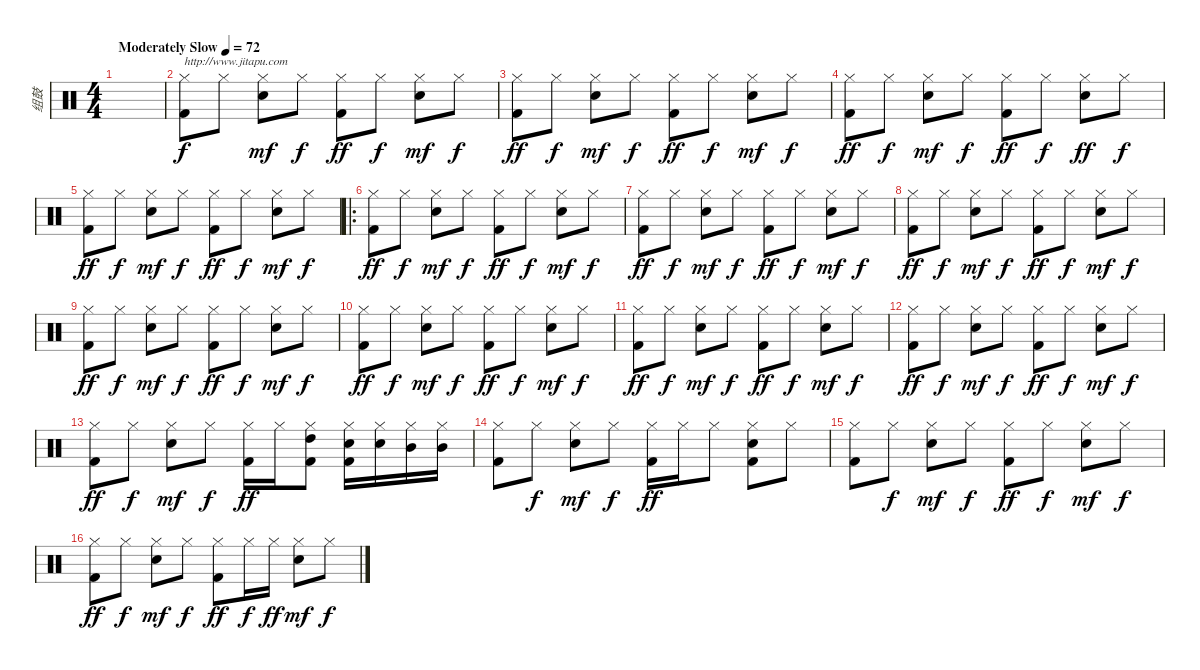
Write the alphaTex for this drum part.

\track ("组鼓" "组鼓") {instrument percussion}
\staff {score}
\articulation defaults
\ts (4 4)
\tempo (72 "Moderately Slow")
\clef neutral
\ks c
|
("Hi-Hat (closed)" "Kick (hit) 2").8{txt "http://www.jitapu.com"} "Hi-Hat (closed)".8{dy f} ("Hi-Hat (closed)" "Snare (hit) 2").8{dy mf} "Hi-Hat (closed)".8{dy f} ("Hi-Hat (closed)" "Kick (hit) 2").8{dy ff} "Hi-Hat (closed)".8{dy f} ("Hi-Hat (closed)" "Snare (hit) 2").8{dy mf} "Hi-Hat (closed)".8{dy f} |
("Hi-Hat (closed)" "Kick (hit) 2").8{dy ff} "Hi-Hat (closed)".8{dy f} ("Hi-Hat (closed)" "Snare (hit) 2").8{dy mf} "Hi-Hat (closed)".8{dy f} ("Hi-Hat (closed)" "Kick (hit) 2").8{dy ff} "Hi-Hat (closed)".8{dy f} ("Hi-Hat (closed)" "Snare (hit) 2").8{dy mf} "Hi-Hat (closed)".8{dy f} |
("Hi-Hat (closed)" "Kick (hit) 2").8{dy ff} "Hi-Hat (closed)".8{dy f} ("Hi-Hat (closed)" "Snare (hit) 2").8{dy mf} "Hi-Hat (closed)".8{dy f} ("Hi-Hat (closed)" "Kick (hit) 2").8{dy ff} "Hi-Hat (closed)".8{dy f} ("Hi-Hat (closed)" "Snare (hit) 2").8{dy ff} "Hi-Hat (closed)".8{dy f} |
("Hi-Hat (closed)" "Kick (hit) 2").8{dy ff} "Hi-Hat (closed)".8{dy f} ("Hi-Hat (closed)" "Snare (hit) 2").8{dy mf} "Hi-Hat (closed)".8{dy f} ("Hi-Hat (closed)" "Kick (hit) 2").8{dy ff} "Hi-Hat (closed)".8{dy f} ("Hi-Hat (closed)" "Snare (hit) 2").8{dy mf} "Hi-Hat (closed)".8{dy f} |
\ro
("Hi-Hat (closed)" "Kick (hit) 2").8{dy ff} "Hi-Hat (closed)".8{dy f} ("Hi-Hat (closed)" "Snare (hit) 2").8{dy mf} "Hi-Hat (closed)".8{dy f} ("Hi-Hat (closed)" "Kick (hit) 2").8{dy ff} "Hi-Hat (closed)".8{dy f} ("Hi-Hat (closed)" "Snare (hit) 2").8{dy mf} "Hi-Hat (closed)".8{dy f} |
("Hi-Hat (closed)" "Kick (hit) 2").8{dy ff} "Hi-Hat (closed)".8{dy f} ("Hi-Hat (closed)" "Snare (hit) 2").8{dy mf} "Hi-Hat (closed)".8{dy f} ("Hi-Hat (closed)" "Kick (hit) 2").8{dy ff} "Hi-Hat (closed)".8{dy f} ("Hi-Hat (closed)" "Snare (hit) 2").8{dy mf} "Hi-Hat (closed)".8{dy f} |
("Hi-Hat (closed)" "Kick (hit) 2").8{dy ff} "Hi-Hat (closed)".8{dy f} ("Hi-Hat (closed)" "Snare (hit) 2").8{dy mf} "Hi-Hat (closed)".8{dy f} ("Hi-Hat (closed)" "Kick (hit) 2").8{dy ff} "Hi-Hat (closed)".8{dy f} ("Hi-Hat (closed)" "Snare (hit) 2").8{dy mf} "Hi-Hat (closed)".8{dy f} |
("Hi-Hat (closed)" "Kick (hit) 2").8{dy ff} "Hi-Hat (closed)".8{dy f} ("Hi-Hat (closed)" "Snare (hit) 2").8{dy mf} "Hi-Hat (closed)".8{dy f} ("Hi-Hat (closed)" "Kick (hit) 2").8{dy ff} "Hi-Hat (closed)".8{dy f} ("Hi-Hat (closed)" "Snare (hit) 2").8{dy mf} "Hi-Hat (closed)".8{dy f} |
("Hi-Hat (closed)" "Kick (hit) 2").8{dy ff} "Hi-Hat (closed)".8{dy f} ("Hi-Hat (closed)" "Snare (hit) 2").8{dy mf} "Hi-Hat (closed)".8{dy f} ("Hi-Hat (closed)" "Kick (hit) 2").8{dy ff} "Hi-Hat (closed)".8{dy f} ("Hi-Hat (closed)" "Snare (hit) 2").8{dy mf} "Hi-Hat (closed)".8{dy f} |
("Hi-Hat (closed)" "Kick (hit) 2").8{dy ff} "Hi-Hat (closed)".8{dy f} ("Hi-Hat (closed)" "Snare (hit) 2").8{dy mf} "Hi-Hat (closed)".8{dy f} ("Hi-Hat (closed)" "Kick (hit) 2").8{dy ff} "Hi-Hat (closed)".8{dy f} ("Hi-Hat (closed)" "Snare (hit) 2").8{dy mf} "Hi-Hat (closed)".8{dy f} |
("Hi-Hat (closed)" "Kick (hit) 2").8{dy ff} "Hi-Hat (closed)".8{dy f} ("Hi-Hat (closed)" "Snare (hit) 2").8{dy mf} "Hi-Hat (closed)".8{dy f} ("Hi-Hat (closed)" "Kick (hit) 2").8{dy ff} "Hi-Hat (closed)".8{dy f} ("Hi-Hat (closed)" "Snare (hit) 2").8{dy mf} "Hi-Hat (closed)".8{dy f} |
("Hi-Hat (closed)" "Kick (hit) 2").8{dy ff} "Hi-Hat (closed)".8{dy f} ("Hi-Hat (closed)" "Snare (hit) 2").8{dy mf} "Hi-Hat (closed)".8{dy f} ("Hi-Hat (closed)" "Kick (hit) 2").16{dy ff} "Hi-Hat (closed)".16 ("Hi-Hat (closed)" "High Tom (hit)" "Kick (hit) 2").8 ("Hi-Hat (closed)" "Snare (hit) 2" "Kick (hit) 2").16 ("Hi-Hat (closed)" "Snare (hit) 2").16 ("Hi-Hat (closed)" "Mid Tom (hit)").16 ("Hi-Hat (closed)" "Mid Tom (hit)").16 |
("Hi-Hat (closed)" "Kick (hit) 2").8 "Hi-Hat (closed)".8{dy f} ("Hi-Hat (closed)" "Snare (hit) 2").8{dy mf} "Hi-Hat (closed)".8{dy f} ("Hi-Hat (closed)" "Kick (hit) 2").16{dy ff} "Hi-Hat (closed)".16 "Hi-Hat (closed)".8 ("Hi-Hat (closed)" "Snare (hit) 2" "Kick (hit) 2").8 "Hi-Hat (closed)".8 |
("Hi-Hat (closed)" "Kick (hit) 2").8 "Hi-Hat (closed)".8{dy f} ("Hi-Hat (closed)" "Snare (hit) 2").8{dy mf} "Hi-Hat (closed)".8{dy f} ("Hi-Hat (closed)" "Kick (hit) 2").8{dy ff} "Hi-Hat (closed)".8{dy f} ("Hi-Hat (closed)" "Snare (hit) 2").8{dy mf} "Hi-Hat (closed)".8{dy f} |
("Hi-Hat (closed)" "Kick (hit) 2").8{dy ff} "Hi-Hat (closed)".8{dy f} ("Hi-Hat (closed)" "Snare (hit) 2").8{dy mf} "Hi-Hat (closed)".8{dy f} ("Hi-Hat (closed)" "Kick (hit) 2").8{dy ff} "Hi-Hat (closed)".16{dy f} "Hi-Hat (closed)".16{dy ff} ("Hi-Hat (closed)" "Snare (hit) 2").8{dy mf} "Hi-Hat (closed)".8{dy f}
